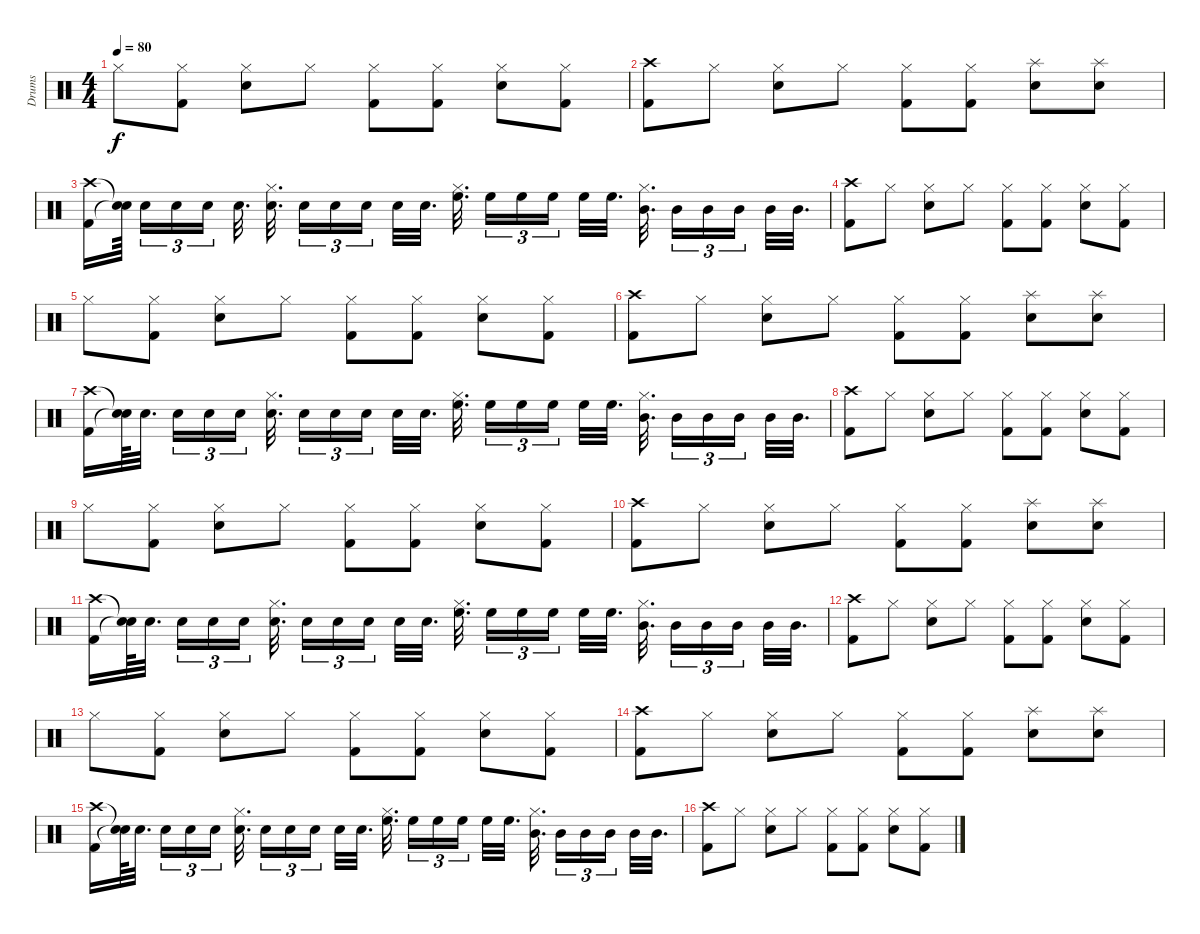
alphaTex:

\track ("Drums         " "Drums     ") {instrument percussion}
\staff {score}
\articulation defaults
\ts (4 4)
\tempo 80
\clef neutral
\ks c "Hi-Hat (closed)".8{dy f}
("Kick (hit) 2" "Hi-Hat (closed)").8 ("Snare (hit) 2" "Hi-Hat (closed)").8 "Hi-Hat (closed)".8 ("Kick (hit) 2" "Hi-Hat (closed)").8 ("Kick (hit) 2" "Hi-Hat (closed)").8 ("Snare (hit) 2" "Hi-Hat (closed)").8 ("Kick (hit) 2" "Hi-Hat (closed)").8 |
("Kick (hit) 2" "Crash high (hit)").8 "Hi-Hat (closed)".8 ("Snare (hit) 2" "Hi-Hat (closed)").8 "Hi-Hat (closed)".8 ("Kick (hit) 2" "Hi-Hat (closed)").8 ("Kick (hit) 2" "Hi-Hat (closed)").8 ("Snare (hit) 2" "Splash (hit)").8 ("Snare (hit) 2" "Splash (hit)").8 |
("Kick (hit) 2" "Crash high (hit)").16 ("Snare (hit)"{t} "Snare (hit)"{t}).64{beam splitsecondary} "Snare (hit) 2".16{tu (3 2)} "Snare (hit) 2".16{tu (3 2)} "Snare (hit) 2".16{tu (3 2) beam splitsecondary} "Snare (hit) 2".32{d} ("Snare (hit) 2" "Hi-Hat (closed)").32{d beam splitsecondary} "Snare (hit) 2".16{tu (3 2)} "Snare (hit) 2".16{tu (3 2)} "Snare (hit) 2".16{tu (3 2) beam splitsecondary} "Snare (hit) 2".32 "Snare (hit) 2".32{d} ("High Floor Tom (hit)" "Hi-Hat (closed)").32{d beam splitsecondary} "High Floor Tom (hit)".16{tu (3 2)} "High Floor Tom (hit)".16{tu (3 2)} "High Floor Tom (hit)".16{tu (3 2) beam splitsecondary} "High Floor Tom (hit)".32 "High Floor Tom (hit)".32{d} ("Hi-Hat (closed)" "Mid Tom (hit)").32{d beam splitsecondary} "Mid Tom (hit)".16{tu (3 2)} "Mid Tom (hit)".16{tu (3 2)} "Mid Tom (hit)".16{tu (3 2) beam splitsecondary} "Mid Tom (hit)".32 "Mid Tom (hit)".32{d} |
("Kick (hit) 2" "Crash high (hit)").8 "Hi-Hat (closed)".8 ("Snare (hit) 2" "Hi-Hat (closed)").8 "Hi-Hat (closed)".8 ("Kick (hit) 2" "Hi-Hat (closed)").8 ("Kick (hit) 2" "Hi-Hat (closed)").8 ("Snare (hit) 2" "Hi-Hat (closed)").8 ("Kick (hit) 2" "Hi-Hat (closed)").8 |
"Hi-Hat (closed)".8 ("Kick (hit) 2" "Hi-Hat (closed)").8 ("Snare (hit) 2" "Hi-Hat (closed)").8 "Hi-Hat (closed)".8 ("Kick (hit) 2" "Hi-Hat (closed)").8 ("Kick (hit) 2" "Hi-Hat (closed)").8 ("Snare (hit) 2" "Hi-Hat (closed)").8 ("Kick (hit) 2" "Hi-Hat (closed)").8 |
("Kick (hit) 2" "Crash high (hit)").8 "Hi-Hat (closed)".8 ("Snare (hit) 2" "Hi-Hat (closed)").8 "Hi-Hat (closed)".8 ("Kick (hit) 2" "Hi-Hat (closed)").8 ("Kick (hit) 2" "Hi-Hat (closed)").8 ("Snare (hit) 2" "Splash (hit)").8 ("Snare (hit) 2" "Splash (hit)").8 |
("Kick (hit) 2" "Crash high (hit)").16 ("Snare (hit)"{t} "Snare (hit)"{t}).64 "Snare (hit) 2".32{d beam splitsecondary} "Snare (hit) 2".16{tu (3 2)} "Snare (hit) 2".16{tu (3 2)} "Snare (hit) 2".16{tu (3 2)} ("Snare (hit) 2" "Hi-Hat (closed)").32{d beam splitsecondary} "Snare (hit) 2".16{tu (3 2)} "Snare (hit) 2".16{tu (3 2)} "Snare (hit) 2".16{tu (3 2) beam splitsecondary} "Snare (hit) 2".32 "Snare (hit) 2".32{d} ("High Floor Tom (hit)" "Hi-Hat (closed)").32{d beam splitsecondary} "High Floor Tom (hit)".16{tu (3 2)} "High Floor Tom (hit)".16{tu (3 2)} "High Floor Tom (hit)".16{tu (3 2) beam splitsecondary} "High Floor Tom (hit)".32 "High Floor Tom (hit)".32{d} ("Hi-Hat (closed)" "Mid Tom (hit)").32{d beam splitsecondary} "Mid Tom (hit)".16{tu (3 2)} "Mid Tom (hit)".16{tu (3 2)} "Mid Tom (hit)".16{tu (3 2) beam splitsecondary} "Mid Tom (hit)".32 "Mid Tom (hit)".32{d} |
("Kick (hit) 2" "Crash high (hit)").8 "Hi-Hat (closed)".8 ("Snare (hit) 2" "Hi-Hat (closed)").8 "Hi-Hat (closed)".8 ("Kick (hit) 2" "Hi-Hat (closed)").8 ("Kick (hit) 2" "Hi-Hat (closed)").8 ("Snare (hit) 2" "Hi-Hat (closed)").8 ("Kick (hit) 2" "Hi-Hat (closed)").8 |
"Hi-Hat (closed)".8 ("Kick (hit) 2" "Hi-Hat (closed)").8 ("Snare (hit) 2" "Hi-Hat (closed)").8 "Hi-Hat (closed)".8 ("Kick (hit) 2" "Hi-Hat (closed)").8 ("Kick (hit) 2" "Hi-Hat (closed)").8 ("Snare (hit) 2" "Hi-Hat (closed)").8 ("Kick (hit) 2" "Hi-Hat (closed)").8 |
("Kick (hit) 2" "Crash high (hit)").8 "Hi-Hat (closed)".8 ("Snare (hit) 2" "Hi-Hat (closed)").8 "Hi-Hat (closed)".8 ("Kick (hit) 2" "Hi-Hat (closed)").8 ("Kick (hit) 2" "Hi-Hat (closed)").8 ("Snare (hit) 2" "Splash (hit)").8 ("Snare (hit) 2" "Splash (hit)").8 |
("Kick (hit) 2" "Crash high (hit)").16 ("Snare (hit)"{t} "Snare (hit)"{t}).64 "Snare (hit) 2".32{d beam splitsecondary} "Snare (hit) 2".16{tu (3 2)} "Snare (hit) 2".16{tu (3 2)} "Snare (hit) 2".16{tu (3 2)} ("Snare (hit) 2" "Hi-Hat (closed)").32{d beam splitsecondary} "Snare (hit) 2".16{tu (3 2)} "Snare (hit) 2".16{tu (3 2)} "Snare (hit) 2".16{tu (3 2) beam splitsecondary} "Snare (hit) 2".32 "Snare (hit) 2".32{d} ("High Floor Tom (hit)" "Hi-Hat (closed)").32{d beam splitsecondary} "High Floor Tom (hit)".16{tu (3 2)} "High Floor Tom (hit)".16{tu (3 2)} "High Floor Tom (hit)".16{tu (3 2) beam splitsecondary} "High Floor Tom (hit)".32 "High Floor Tom (hit)".32{d} ("Hi-Hat (closed)" "Mid Tom (hit)").32{d beam splitsecondary} "Mid Tom (hit)".16{tu (3 2)} "Mid Tom (hit)".16{tu (3 2)} "Mid Tom (hit)".16{tu (3 2) beam splitsecondary} "Mid Tom (hit)".32 "Mid Tom (hit)".32{d} |
("Kick (hit) 2" "Crash high (hit)").8 "Hi-Hat (closed)".8 ("Snare (hit) 2" "Hi-Hat (closed)").8 "Hi-Hat (closed)".8 ("Kick (hit) 2" "Hi-Hat (closed)").8 ("Kick (hit) 2" "Hi-Hat (closed)").8 ("Snare (hit) 2" "Hi-Hat (closed)").8 ("Kick (hit) 2" "Hi-Hat (closed)").8 |
"Hi-Hat (closed)".8 ("Kick (hit) 2" "Hi-Hat (closed)").8 ("Snare (hit) 2" "Hi-Hat (closed)").8 "Hi-Hat (closed)".8 ("Kick (hit) 2" "Hi-Hat (closed)").8 ("Kick (hit) 2" "Hi-Hat (closed)").8 ("Snare (hit) 2" "Hi-Hat (closed)").8 ("Kick (hit) 2" "Hi-Hat (closed)").8 |
("Kick (hit) 2" "Crash high (hit)").8 "Hi-Hat (closed)".8 ("Snare (hit) 2" "Hi-Hat (closed)").8 "Hi-Hat (closed)".8 ("Kick (hit) 2" "Hi-Hat (closed)").8 ("Kick (hit) 2" "Hi-Hat (closed)").8 ("Snare (hit) 2" "Splash (hit)").8 ("Snare (hit) 2" "Splash (hit)").8 |
("Kick (hit) 2" "Crash high (hit)").16 ("Snare (hit)"{t} "Snare (hit)"{t}).64 "Snare (hit) 2".32{d beam splitsecondary} "Snare (hit) 2".16{tu (3 2)} "Snare (hit) 2".16{tu (3 2)} "Snare (hit) 2".16{tu (3 2)} ("Snare (hit) 2" "Hi-Hat (closed)").32{d beam splitsecondary} "Snare (hit) 2".16{tu (3 2)} "Snare (hit) 2".16{tu (3 2)} "Snare (hit) 2".16{tu (3 2) beam splitsecondary} "Snare (hit) 2".32 "Snare (hit) 2".32{d} ("High Floor Tom (hit)" "Hi-Hat (closed)").32{d beam splitsecondary} "High Floor Tom (hit)".16{tu (3 2)} "High Floor Tom (hit)".16{tu (3 2)} "High Floor Tom (hit)".16{tu (3 2) beam splitsecondary} "High Floor Tom (hit)".32 "High Floor Tom (hit)".32{d} ("Hi-Hat (closed)" "Mid Tom (hit)").32{d beam splitsecondary} "Mid Tom (hit)".16{tu (3 2)} "Mid Tom (hit)".16{tu (3 2)} "Mid Tom (hit)".16{tu (3 2) beam splitsecondary} "Mid Tom (hit)".32 "Mid Tom (hit)".32{d} |
("Kick (hit) 2" "Crash high (hit)").8 "Hi-Hat (closed)".8 ("Snare (hit) 2" "Hi-Hat (closed)").8 "Hi-Hat (closed)".8 ("Kick (hit) 2" "Hi-Hat (closed)").8 ("Kick (hit) 2" "Hi-Hat (closed)").8 ("Snare (hit) 2" "Hi-Hat (closed)").8 ("Kick (hit) 2" "Hi-Hat (closed)").8
